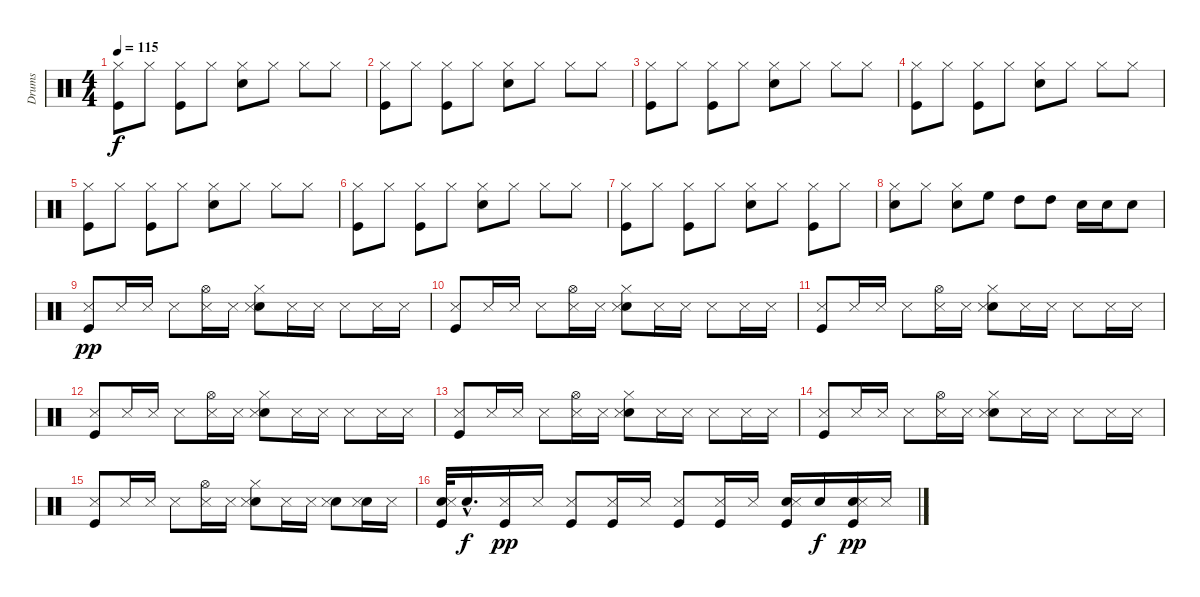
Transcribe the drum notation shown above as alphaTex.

\track ("Drums" "Drums") {instrument percussion}
\staff {score}
\articulation defaults
\ts (4 4)
\tempo 115
\clef neutral
\ks c
("Hi-Hat (closed)" "Kick (hit)").8{dy f} "Hi-Hat (closed)".8 ("Hi-Hat (closed)" "Kick (hit)").8 "Hi-Hat (closed)".8 ("Hi-Hat (closed)" "Snare (hit) 2").8 "Hi-Hat (closed)".8 "Hi-Hat (closed)".8 "Hi-Hat (closed)".8 |
("Hi-Hat (closed)" "Kick (hit)").8 "Hi-Hat (closed)".8 ("Hi-Hat (closed)" "Kick (hit)").8 "Hi-Hat (closed)".8 ("Hi-Hat (closed)" "Snare (hit) 2").8 "Hi-Hat (closed)".8 "Hi-Hat (closed)".8 "Hi-Hat (closed)".8 |
("Hi-Hat (closed)" "Kick (hit)").8 "Hi-Hat (closed)".8 ("Hi-Hat (closed)" "Kick (hit)").8 "Hi-Hat (closed)".8 ("Hi-Hat (closed)" "Snare (hit) 2").8 "Hi-Hat (closed)".8 "Hi-Hat (closed)".8 "Hi-Hat (closed)".8 |
("Hi-Hat (closed)" "Kick (hit)").8 "Hi-Hat (closed)".8 ("Hi-Hat (closed)" "Kick (hit)").8 "Hi-Hat (closed)".8 ("Hi-Hat (closed)" "Snare (hit) 2").8 "Hi-Hat (closed)".8 "Hi-Hat (closed)".8 "Hi-Hat (closed)".8 |
("Hi-Hat (closed)" "Kick (hit)").8 "Hi-Hat (closed)".8 ("Hi-Hat (closed)" "Kick (hit)").8 "Hi-Hat (closed)".8 ("Hi-Hat (closed)" "Snare (hit) 2").8 "Hi-Hat (closed)".8 "Hi-Hat (closed)".8 "Hi-Hat (closed)".8 |
("Hi-Hat (closed)" "Kick (hit)").8 "Hi-Hat (closed)".8 ("Hi-Hat (closed)" "Kick (hit)").8 "Hi-Hat (closed)".8 ("Hi-Hat (closed)" "Snare (hit) 2").8 "Hi-Hat (closed)".8 "Hi-Hat (closed)".8 "Hi-Hat (closed)".8 |
("Hi-Hat (closed)" "Kick (hit)").8 "Hi-Hat (closed)".8 ("Hi-Hat (closed)" "Kick (hit)").8 "Hi-Hat (closed)".8 ("Hi-Hat (closed)" "Snare (hit) 2").8 "Hi-Hat (closed)".8 ("Hi-Hat (closed)" "Kick (hit)").8 "Hi-Hat (closed)".8 |
("Hi-Hat (closed)" "Snare (hit) 2").8 "Hi-Hat (closed)".8 ("Hi-Hat (closed)" "Snare (hit) 2").8 "High Floor Tom (hit)".8 "High Tom (hit)".8 "High Tom (hit)".8 "Snare (hit) 2".16 "Snare (hit) 2".16 "Snare (hit) 2".8 |
("Snare (side stick) 3" "Kick (hit)").8{dy pp} "Snare (side stick) 3".16 "Snare (side stick) 3".16 "Snare (side stick) 3".8 ("Hi-Hat (open)" "Snare (side stick) 3").16 "Snare (side stick) 3".16 ("Hi-Hat (closed)" "Snare (hit) 2" "Snare (side stick) 3").8 "Snare (side stick) 3".16 "Snare (side stick) 3".16 "Snare (side stick) 3".8 "Snare (side stick) 3".16 "Snare (side stick) 3".16 |
("Snare (side stick) 3" "Kick (hit)").8 "Snare (side stick) 3".16 "Snare (side stick) 3".16 "Snare (side stick) 3".8 ("Hi-Hat (open)" "Snare (side stick) 3").16 "Snare (side stick) 3".16 ("Hi-Hat (closed)" "Snare (hit) 2" "Snare (side stick) 3").8 "Snare (side stick) 3".16 "Snare (side stick) 3".16 "Snare (side stick) 3".8 "Snare (side stick) 3".16 "Snare (side stick) 3".16 |
("Snare (side stick) 3" "Kick (hit)").8 "Snare (side stick) 3".16 "Snare (side stick) 3".16 "Snare (side stick) 3".8 ("Hi-Hat (open)" "Snare (side stick) 3").16 "Snare (side stick) 3".16 ("Hi-Hat (closed)" "Snare (hit) 2" "Snare (side stick) 3").8 "Snare (side stick) 3".16 "Snare (side stick) 3".16 "Snare (side stick) 3".8 "Snare (side stick) 3".16 "Snare (side stick) 3".16 |
("Snare (side stick) 3" "Kick (hit)").8 "Snare (side stick) 3".16 "Snare (side stick) 3".16 "Snare (side stick) 3".8 ("Hi-Hat (open)" "Snare (side stick) 3").16 "Snare (side stick) 3".16 ("Hi-Hat (closed)" "Snare (hit) 2" "Snare (side stick) 3").8 "Snare (side stick) 3".16 "Snare (side stick) 3".16 "Snare (side stick) 3".8 "Snare (side stick) 3".16 "Snare (side stick) 3".16 |
("Snare (side stick) 3" "Kick (hit)").8 "Snare (side stick) 3".16 "Snare (side stick) 3".16 "Snare (side stick) 3".8 ("Hi-Hat (open)" "Snare (side stick) 3").16 "Snare (side stick) 3".16 ("Hi-Hat (closed)" "Snare (hit) 2" "Snare (side stick) 3").8 "Snare (side stick) 3".16 "Snare (side stick) 3".16 "Snare (side stick) 3".8 "Snare (side stick) 3".16 "Snare (side stick) 3".16 |
("Snare (side stick) 3" "Kick (hit)").8 "Snare (side stick) 3".16 "Snare (side stick) 3".16 "Snare (side stick) 3".8 ("Hi-Hat (open)" "Snare (side stick) 3").16 "Snare (side stick) 3".16 ("Hi-Hat (closed)" "Snare (hit) 2" "Snare (side stick) 3").8 "Snare (side stick) 3".16 "Snare (side stick) 3".16 "Snare (side stick) 3".8 "Snare (side stick) 3".16 "Snare (side stick) 3".16 |
("Snare (side stick) 3" "Kick (hit)").8 "Snare (side stick) 3".16 "Snare (side stick) 3".16 "Snare (side stick) 3".8 ("Hi-Hat (open)" "Snare (side stick) 3").16 "Snare (side stick) 3".16 ("Hi-Hat (closed)" "Snare (hit) 2" "Snare (side stick) 3").8 "Snare (side stick) 3".16 "Snare (side stick) 3".16 ("Snare (hit) 2" "Snare (side stick) 3").8 ("Snare (hit) 2" "Snare (side stick) 3").16 "Snare (side stick) 3".16 |
("Snare (hit) 2" "Snare (side stick) 3" "Kick (hit)").32 "Snare (hit) 2"{hac}.16{d dy f} ("Snare (side stick) 3" "Kick (hit)").16{dy pp} "Snare (side stick) 3".16 ("Snare (side stick) 3" "Kick (hit)").8 ("Snare (side stick) 3" "Kick (hit)").16 "Snare (side stick) 3".16 ("Snare (side stick) 3" "Kick (hit)").8 ("Snare (side stick) 3" "Kick (hit)").16 "Snare (side stick) 3".16 ("Snare (hit) 2" "Snare (side stick) 3" "Kick (hit)").16 "Snare (hit) 2".16{dy f} ("Snare (hit) 2" "Snare (side stick) 3" "Kick (hit)").16{dy pp} "Snare (side stick) 3".16
